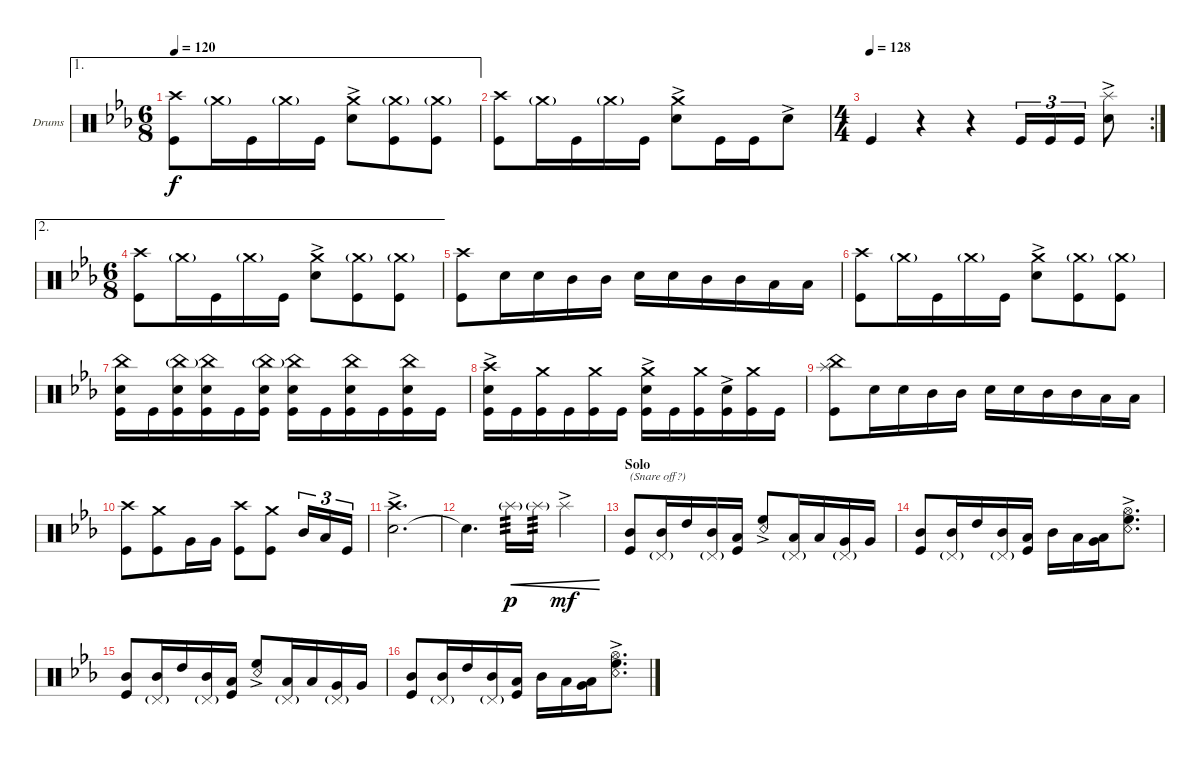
\bracketExtendMode groupsimilarinstruments
\firstSystemTrackNameOrientation horizontal
\otherSystemsTrackNameOrientation horizontal
\track ("Drumkit" "Drums") {instrument percussion}
\staff {score}
\articulation defaults
\ae 1
\ts (6 8)
\tempo 120
\clef neutral
\ks cminor
("Kick (hit)" "Crash high (hit)").8{dy f} "Crash medium (hit)"{g}.16 "Kick (hit)".16 "Crash medium (hit)"{g}.16 "Kick (hit)".16 ("Snare (hit) 2"{ac} "Crash medium (hit)").8 ("Kick (hit)" "Crash medium (hit)"{g}).8 ("Kick (hit)" "Crash medium (hit)"{g}).8 |
("Kick (hit)" "Crash high (hit)").8 "Crash medium (hit)"{g}.16 "Kick (hit)".16 "Crash medium (hit)"{g}.16 "Kick (hit)".16 ("Snare (hit) 2"{ac} "Crash medium (hit)").8 "Kick (hit)".16 "Kick (hit)".16 "Snare (hit) 2"{ac}.8 |
\rc 2
\ts (4 4)
\tempo (128)
"Kick (hit)".4 r.4 r.4 "Kick (hit)".16{tu (3 2)} "Kick (hit)".16{tu (3 2)} "Kick (hit)".16{tu (3 2)} ("Snare (hit) 2"{ac} "Splash (hit)").8 |
\ae 2
\ts (6 8)
("Kick (hit)" "Crash high (hit)").8 "Crash medium (hit)"{g}.16 "Kick (hit)".16 "Crash medium (hit)"{g}.16 "Kick (hit)".16 ("Snare (hit) 2"{ac} "Crash medium (hit)").8 ("Kick (hit)" "Crash medium (hit)"{g}).8 ("Kick (hit)" "Crash medium (hit)"{g}).8 |
("Kick (hit)" "Crash high (hit)").8 "Snare (hit) 2".16 "Snare (hit) 2".16 "Mid Tom (hit)".16 "Mid Tom (hit)".16 "Snare (hit) 2".16 "Snare (hit) 2".16 "Mid Tom (hit)".16 "Mid Tom (hit)".16 "Low Tom (hit)".16 "Low Tom (hit)".16 |
("Kick (hit)" "Crash high (hit)").8 "Crash medium (hit)"{g}.16 "Kick (hit)".16 "Crash medium (hit)"{g}.16 "Kick (hit)".16 ("Snare (hit) 2"{ac} "Crash medium (hit)").8 ("Kick (hit)" "Crash medium (hit)"{g}).8 ("Kick (hit)" "Crash medium (hit)"{g}).8 |
("Kick (hit)" "Snare (hit) 2" "China (hit)").16 "Kick (hit)".16 ("Kick (hit)" "Snare (hit) 2" "China (hit)"{g}).16 ("Kick (hit)" "Snare (hit) 2" "China (hit)").16 "Kick (hit)".16 ("Kick (hit)" "Snare (hit) 2" "China (hit)"{g}).16 ("Kick (hit)" "Snare (hit) 2" "China (hit)").16 "Kick (hit)".16 ("Kick (hit)" "Snare (hit) 2" "China (hit)").16 "Kick (hit)".16 ("Kick (hit)" "Snare (hit) 2" "China (hit)").16 "Kick (hit)".16 |
("Kick (hit)" "Snare (hit) 2"{ac} "Crash high (hit)").16 "Kick (hit)".16 ("Kick (hit)" "Crash medium (hit)").16 "Kick (hit)".16 ("Kick (hit)" "Crash medium (hit)").16 "Kick (hit)".16 ("Kick (hit)" "Snare (hit) 2"{ac} "Crash medium (hit)").16 "Kick (hit)".16 ("Kick (hit)" "Crash medium (hit)").16 ("Kick (hit)" "Snare (hit) 2"{ac}).16 ("Kick (hit)" "Crash medium (hit)").16 "Kick (hit)".16 |
("Kick (hit)" "Splash (hit)" "China (hit)").8 "Snare (hit) 2".16 "Snare (hit) 2".16 "Mid Tom (hit)".16 "Mid Tom (hit)".16 "Snare (hit) 2".16 "Snare (hit) 2".16 "Mid Tom (hit)".16 "Mid Tom (hit)".16 "Low Tom (hit)".16 "Low Tom (hit)".16 |
("Kick (hit)" "Crash high (hit)").8 ("Kick (hit)" "Crash medium (hit)").8 "Very Low Tom (hit)".16 "Very Low Tom (hit)".16 ("Kick (hit)" "Crash high (hit)").8 ("Kick (hit)" "Crash medium (hit)").8 "Mid Tom (hit)".16{tu (3 2)} "Low Tom (hit)".16{tu (3 2)} "Kick (hit)".16{tu (3 2)} |
("Snare (hit) 2"{ac} "Crash high (hit)").2{d} |
"Snare (hit) 2"{t}.4{d} "Splash (hit)"{g}.16{tp 3 cre dy p} "Splash (hit)"{g}.16{tp 3 cre} "Splash (hit)"{ac}.4{cre dy mf} |
\section ("" "Solo")
("Kick (hit)" "Mid Tom (hit)").8{txt "(Snare off?)"} ("Mid Tom (hit)" "Pedal Hi-Hat (hit)"{g}).16 "High Tom (hit)".16 ("Mid Tom (hit)" "Pedal Hi-Hat (hit)"{g}).16 ("Low Tom (hit)" "Kick (hit)").16 ("High Floor Tom (hit)"{ac} "Snare (rim shot)").8 ("Low Tom (hit)" "Pedal Hi-Hat (hit)"{g}).16 "Low Tom (hit)".16 ("Very Low Tom (hit)" "Pedal Hi-Hat (hit)"{g}).16 "Very Low Tom (hit)".16 |
("Kick (hit)" "Mid Tom (hit)").8 ("Mid Tom (hit)" "Pedal Hi-Hat (hit)"{g}).16 "High Tom (hit)".16 ("Mid Tom (hit)" "Pedal Hi-Hat (hit)"{g}).16 ("Low Tom (hit)" "Kick (hit)").16 "Mid Tom (hit)".16 "Low Tom (hit)".16 ("Very Low Tom (hit)" "Low Tom (hit)").16 ("High Floor Tom (hit)"{ac} "Hi-Hat (open)" "Snare (rim shot)").8{d} |
("Kick (hit)" "Mid Tom (hit)").8 ("Mid Tom (hit)" "Pedal Hi-Hat (hit)"{g}).16 "High Tom (hit)".16 ("Mid Tom (hit)" "Pedal Hi-Hat (hit)"{g}).16 ("Low Tom (hit)" "Kick (hit)").16 ("High Floor Tom (hit)"{ac} "Snare (rim shot)").8 ("Low Tom (hit)" "Pedal Hi-Hat (hit)"{g}).16 "Low Tom (hit)".16 ("Very Low Tom (hit)" "Pedal Hi-Hat (hit)"{g}).16 "Very Low Tom (hit)".16 |
("Kick (hit)" "Mid Tom (hit)").8 ("Mid Tom (hit)" "Pedal Hi-Hat (hit)"{g}).16 "High Tom (hit)".16 ("Mid Tom (hit)" "Pedal Hi-Hat (hit)"{g}).16 ("Low Tom (hit)" "Kick (hit)").16 "Mid Tom (hit)".16 "Low Tom (hit)".16 ("Very Low Tom (hit)" "Low Tom (hit)").16 ("High Floor Tom (hit)"{ac} "Hi-Hat (open)" "Snare (rim shot)").8{d}
